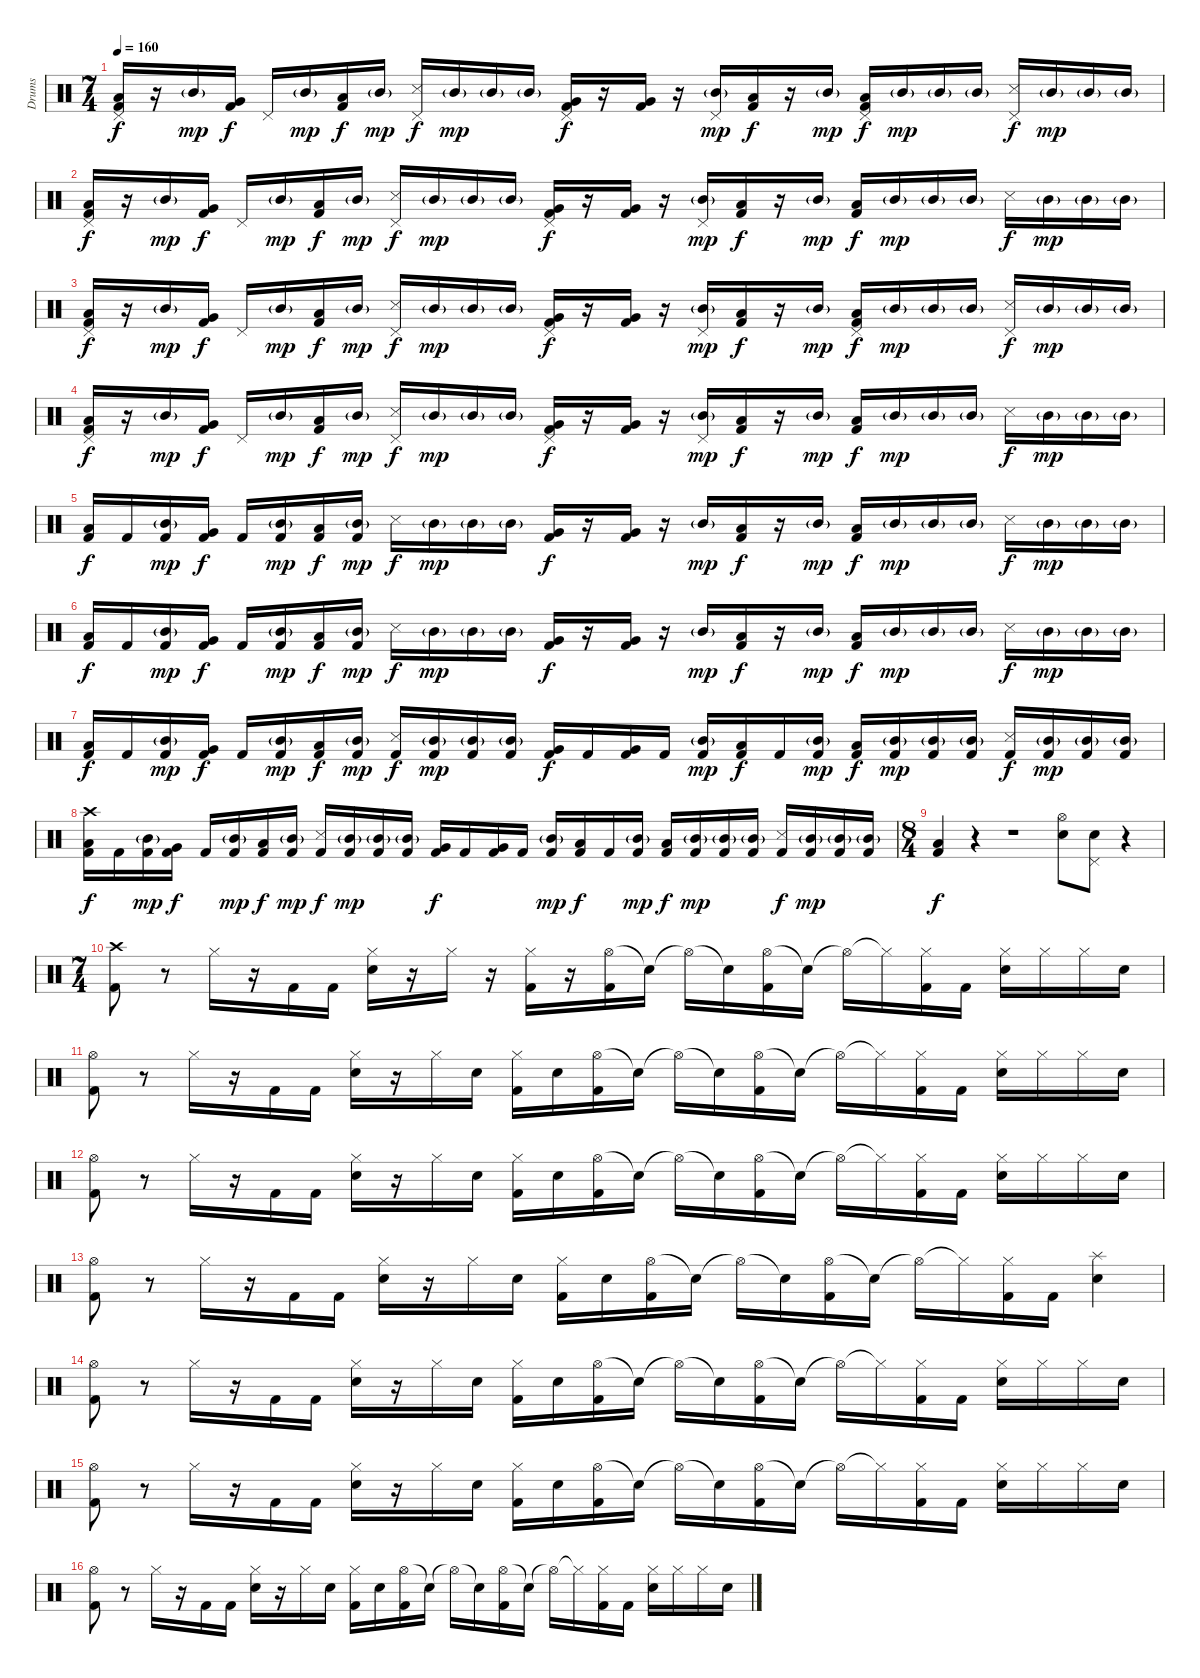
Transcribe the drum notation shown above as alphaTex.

\track ("Drums" "Drums") {instrument percussion}
\staff {score}
\articulation defaults
\ts (7 4)
\tempo 160
\clef neutral
\ks c
("Pedal Hi-Hat (hit)" "Low Floor Tom (hit)" "Kick (hit) 2").16{dy f} r.16 "Mid Tom (hit)"{g}.16{dy mp} ("Very Low Tom (hit)" "Kick (hit) 2").16{dy f} "Pedal Hi-Hat (hit)".16 "Mid Tom (hit)"{g}.16{dy mp} ("Low Floor Tom (hit)" "Kick (hit) 2").16{dy f} "Mid Tom (hit)"{g}.16{dy mp} ("Pedal Hi-Hat (hit)" "Snare (side stick) 3").16{dy f} "Mid Tom (hit)"{g}.16{dy mp} "Mid Tom (hit)"{g}.16 "Mid Tom (hit)"{g}.16 ("Pedal Hi-Hat (hit)" "Very Low Tom (hit)" "Kick (hit) 2").16{dy f} r.16 ("Very Low Tom (hit)" "Kick (hit) 2").16 r.16 ("Pedal Hi-Hat (hit)" "Mid Tom (hit)"{g}).16{dy mp} ("Low Floor Tom (hit)" "Kick (hit) 2").16{dy f} r.16 "Mid Tom (hit)"{g}.16{dy mp} ("Pedal Hi-Hat (hit)" "Low Floor Tom (hit)" "Kick (hit) 2").16{dy f} "Mid Tom (hit)"{g}.16{dy mp} "Mid Tom (hit)"{g}.16 "Mid Tom (hit)"{g}.16 ("Pedal Hi-Hat (hit)" "Snare (side stick) 3").16{dy f} "Mid Tom (hit)"{g}.16{dy mp} "Mid Tom (hit)"{g}.16 "Mid Tom (hit)"{g}.16 |
("Pedal Hi-Hat (hit)" "Low Floor Tom (hit)" "Kick (hit) 2").16{dy f} r.16 "Mid Tom (hit)"{g}.16{dy mp} ("Very Low Tom (hit)" "Kick (hit) 2").16{dy f} "Pedal Hi-Hat (hit)".16 "Mid Tom (hit)"{g}.16{dy mp} ("Low Floor Tom (hit)" "Kick (hit) 2").16{dy f} "Mid Tom (hit)"{g}.16{dy mp} ("Pedal Hi-Hat (hit)" "Snare (side stick) 3").16{dy f} "Mid Tom (hit)"{g}.16{dy mp} "Mid Tom (hit)"{g}.16 "Mid Tom (hit)"{g}.16 ("Pedal Hi-Hat (hit)" "Very Low Tom (hit)" "Kick (hit) 2").16{dy f} r.16 ("Very Low Tom (hit)" "Kick (hit) 2").16 r.16 ("Pedal Hi-Hat (hit)" "Mid Tom (hit)"{g}).16{dy mp} ("Low Floor Tom (hit)" "Kick (hit) 2").16{dy f} r.16 "Mid Tom (hit)"{g}.16{dy mp} ("Low Floor Tom (hit)" "Kick (hit) 2").16{dy f} "Mid Tom (hit)"{g}.16{dy mp} "Mid Tom (hit)"{g}.16 "Mid Tom (hit)"{g}.16 "Snare (side stick) 3".16{dy f} "Mid Tom (hit)"{g}.16{dy mp} "Mid Tom (hit)"{g}.16 "Mid Tom (hit)"{g}.16 |
("Pedal Hi-Hat (hit)" "Low Floor Tom (hit)" "Kick (hit) 2").16{dy f} r.16 "Mid Tom (hit)"{g}.16{dy mp} ("Very Low Tom (hit)" "Kick (hit) 2").16{dy f} "Pedal Hi-Hat (hit)".16 "Mid Tom (hit)"{g}.16{dy mp} ("Low Floor Tom (hit)" "Kick (hit) 2").16{dy f} "Mid Tom (hit)"{g}.16{dy mp} ("Pedal Hi-Hat (hit)" "Snare (side stick) 3").16{dy f} "Mid Tom (hit)"{g}.16{dy mp} "Mid Tom (hit)"{g}.16 "Mid Tom (hit)"{g}.16 ("Pedal Hi-Hat (hit)" "Very Low Tom (hit)" "Kick (hit) 2").16{dy f} r.16 ("Very Low Tom (hit)" "Kick (hit) 2").16 r.16 ("Pedal Hi-Hat (hit)" "Mid Tom (hit)"{g}).16{dy mp} ("Low Floor Tom (hit)" "Kick (hit) 2").16{dy f} r.16 "Mid Tom (hit)"{g}.16{dy mp} ("Pedal Hi-Hat (hit)" "Low Floor Tom (hit)" "Kick (hit) 2").16{dy f} "Mid Tom (hit)"{g}.16{dy mp} "Mid Tom (hit)"{g}.16 "Mid Tom (hit)"{g}.16 ("Pedal Hi-Hat (hit)" "Snare (side stick) 3").16{dy f} "Mid Tom (hit)"{g}.16{dy mp} "Mid Tom (hit)"{g}.16 "Mid Tom (hit)"{g}.16 |
("Pedal Hi-Hat (hit)" "Low Floor Tom (hit)" "Kick (hit) 2").16{dy f} r.16 "Mid Tom (hit)"{g}.16{dy mp} ("Very Low Tom (hit)" "Kick (hit) 2").16{dy f} "Pedal Hi-Hat (hit)".16 "Mid Tom (hit)"{g}.16{dy mp} ("Low Floor Tom (hit)" "Kick (hit) 2").16{dy f} "Mid Tom (hit)"{g}.16{dy mp} ("Pedal Hi-Hat (hit)" "Snare (side stick) 3").16{dy f} "Mid Tom (hit)"{g}.16{dy mp} "Mid Tom (hit)"{g}.16 "Mid Tom (hit)"{g}.16 ("Pedal Hi-Hat (hit)" "Very Low Tom (hit)" "Kick (hit) 2").16{dy f} r.16 ("Very Low Tom (hit)" "Kick (hit) 2").16 r.16 ("Pedal Hi-Hat (hit)" "Mid Tom (hit)"{g}).16{dy mp} ("Low Floor Tom (hit)" "Kick (hit) 2").16{dy f} r.16 "Mid Tom (hit)"{g}.16{dy mp} ("Low Floor Tom (hit)" "Kick (hit) 2").16{dy f} "Mid Tom (hit)"{g}.16{dy mp} "Mid Tom (hit)"{g}.16 "Mid Tom (hit)"{g}.16 "Snare (side stick) 3".16{dy f} "Mid Tom (hit)"{g}.16{dy mp} "Mid Tom (hit)"{g}.16 "Mid Tom (hit)"{g}.16 |
("Low Floor Tom (hit)" "Kick (hit) 2").16{dy f} "Kick (hit) 2".16 ("Mid Tom (hit)"{g} "Kick (hit) 2").16{dy mp} ("Very Low Tom (hit)" "Kick (hit) 2").16{dy f} "Kick (hit) 2".16 ("Mid Tom (hit)"{g} "Kick (hit) 2").16{dy mp} ("Low Floor Tom (hit)" "Kick (hit) 2").16{dy f} ("Mid Tom (hit)"{g} "Kick (hit) 2").16{dy mp} "Snare (side stick) 3".16{dy f} "Mid Tom (hit)"{g}.16{dy mp} "Mid Tom (hit)"{g}.16 "Mid Tom (hit)"{g}.16 ("Very Low Tom (hit)" "Kick (hit) 2").16{dy f} r.16 ("Very Low Tom (hit)" "Kick (hit) 2").16 r.16 "Mid Tom (hit)"{g}.16{dy mp} ("Low Floor Tom (hit)" "Kick (hit) 2").16{dy f} r.16 "Mid Tom (hit)"{g}.16{dy mp} ("Low Floor Tom (hit)" "Kick (hit) 2").16{dy f} "Mid Tom (hit)"{g}.16{dy mp} "Mid Tom (hit)"{g}.16 "Mid Tom (hit)"{g}.16 "Snare (side stick) 3".16{dy f} "Mid Tom (hit)"{g}.16{dy mp} "Mid Tom (hit)"{g}.16 "Mid Tom (hit)"{g}.16 |
("Low Floor Tom (hit)" "Kick (hit) 2").16{dy f} "Kick (hit) 2".16 ("Mid Tom (hit)"{g} "Kick (hit) 2").16{dy mp} ("Very Low Tom (hit)" "Kick (hit) 2").16{dy f} "Kick (hit) 2".16 ("Mid Tom (hit)"{g} "Kick (hit) 2").16{dy mp} ("Low Floor Tom (hit)" "Kick (hit) 2").16{dy f} ("Mid Tom (hit)"{g} "Kick (hit) 2").16{dy mp} "Snare (side stick) 3".16{dy f} "Mid Tom (hit)"{g}.16{dy mp} "Mid Tom (hit)"{g}.16 "Mid Tom (hit)"{g}.16 ("Very Low Tom (hit)" "Kick (hit) 2").16{dy f} r.16 ("Very Low Tom (hit)" "Kick (hit) 2").16 r.16 "Mid Tom (hit)"{g}.16{dy mp} ("Low Floor Tom (hit)" "Kick (hit) 2").16{dy f} r.16 "Mid Tom (hit)"{g}.16{dy mp} ("Low Floor Tom (hit)" "Kick (hit) 2").16{dy f} "Mid Tom (hit)"{g}.16{dy mp} "Mid Tom (hit)"{g}.16 "Mid Tom (hit)"{g}.16 "Snare (side stick) 3".16{dy f} "Mid Tom (hit)"{g}.16{dy mp} "Mid Tom (hit)"{g}.16 "Mid Tom (hit)"{g}.16 |
("Low Floor Tom (hit)" "Kick (hit) 2").16{dy f} "Kick (hit) 2".16 ("Mid Tom (hit)"{g} "Kick (hit) 2").16{dy mp} ("Very Low Tom (hit)" "Kick (hit) 2").16{dy f} "Kick (hit) 2".16 ("Mid Tom (hit)"{g} "Kick (hit) 2").16{dy mp} ("Low Floor Tom (hit)" "Kick (hit) 2").16{dy f} ("Mid Tom (hit)"{g} "Kick (hit) 2").16{dy mp} ("Snare (side stick) 3" "Kick (hit) 2").16{dy f} ("Mid Tom (hit)"{g} "Kick (hit) 2").16{dy mp} ("Mid Tom (hit)"{g} "Kick (hit) 2").16 ("Mid Tom (hit)"{g} "Kick (hit) 2").16 ("Very Low Tom (hit)" "Kick (hit) 2").16{dy f} "Kick (hit) 2".16 ("Very Low Tom (hit)" "Kick (hit) 2").16 "Kick (hit) 2".16 ("Mid Tom (hit)"{g} "Kick (hit) 2").16{dy mp} ("Low Floor Tom (hit)" "Kick (hit) 2").16{dy f} "Kick (hit) 2".16 ("Mid Tom (hit)"{g} "Kick (hit) 2").16{dy mp} ("Low Floor Tom (hit)" "Kick (hit) 2").16{dy f} ("Mid Tom (hit)"{g} "Kick (hit) 2").16{dy mp} ("Mid Tom (hit)"{g} "Kick (hit) 2").16 ("Mid Tom (hit)"{g} "Kick (hit) 2").16 ("Snare (side stick) 3" "Kick (hit) 2").16{dy f} ("Mid Tom (hit)"{g} "Kick (hit) 2").16{dy mp} ("Mid Tom (hit)"{g} "Kick (hit) 2").16 ("Mid Tom (hit)"{g} "Kick (hit) 2").16 |
("Crash high (hit)" "Low Floor Tom (hit)" "Kick (hit) 2").16{dy f} "Kick (hit) 2".16 ("Mid Tom (hit)"{g} "Kick (hit) 2").16{dy mp} ("Very Low Tom (hit)" "Kick (hit) 2").16{dy f} "Kick (hit) 2".16 ("Mid Tom (hit)"{g} "Kick (hit) 2").16{dy mp} ("Low Floor Tom (hit)" "Kick (hit) 2").16{dy f} ("Mid Tom (hit)"{g} "Kick (hit) 2").16{dy mp} ("Snare (side stick) 3" "Kick (hit) 2").16{dy f} ("Mid Tom (hit)"{g} "Kick (hit) 2").16{dy mp} ("Mid Tom (hit)"{g} "Kick (hit) 2").16 ("Mid Tom (hit)"{g} "Kick (hit) 2").16 ("Very Low Tom (hit)" "Kick (hit) 2").16{dy f} "Kick (hit) 2".16 ("Very Low Tom (hit)" "Kick (hit) 2").16 "Kick (hit) 2".16 ("Mid Tom (hit)"{g} "Kick (hit) 2").16{dy mp} ("Low Floor Tom (hit)" "Kick (hit) 2").16{dy f} "Kick (hit) 2".16 ("Mid Tom (hit)"{g} "Kick (hit) 2").16{dy mp} ("Low Floor Tom (hit)" "Kick (hit) 2").16{dy f} ("Mid Tom (hit)"{g} "Kick (hit) 2").16{dy mp} ("Mid Tom (hit)"{g} "Kick (hit) 2").16 ("Mid Tom (hit)"{g} "Kick (hit) 2").16 ("Snare (side stick) 3" "Kick (hit) 2").16{dy f} ("Mid Tom (hit)"{g} "Kick (hit) 2").16{dy mp} ("Mid Tom (hit)"{g} "Kick (hit) 2").16 ("Mid Tom (hit)"{g} "Kick (hit) 2").16 |
\ts (8 4)
("Low Floor Tom (hit)" "Kick (hit) 2").4{dy f} r.4 r.1 ("Hi-Hat (open)" "Snare (hit) 2").8 ("Pedal Hi-Hat (hit)" "Snare (hit) 2").8 r.4 |
\ts (7 4)
("Crash high (hit)" "Kick (hit) 2").8 r.8 "Hi-Hat (closed)".16 r.16 "Kick (hit) 2".16 "Kick (hit) 2".16 ("Hi-Hat (closed)" "Snare (hit) 2").16 r.16 "Hi-Hat (closed)".16 r.16 ("Hi-Hat (closed)" "Kick (hit) 2").16 r.16 ("Hi-Hat (open)" "Kick (hit) 2").16 "Snare (hit)"{t}.16 "Hi-Hat (open)"{t}.16 "Snare (hit)"{t}.16 ("Hi-Hat (open)" "Kick (hit) 2").16 "Snare (hit)"{t}.16 "Hi-Hat (open)"{t}.16 "Hi-Hat (closed)"{t}.16 ("Hi-Hat (closed)" "Kick (hit) 2").16 "Kick (hit) 2".16 ("Hi-Hat (closed)" "Snare (hit) 2").16 "Hi-Hat (closed)".16 "Hi-Hat (closed)".16 "Snare (hit) 2".16 |
("Hi-Hat (open)" "Kick (hit) 2").8 r.8 "Hi-Hat (closed)".16 r.16 "Kick (hit) 2".16 "Kick (hit) 2".16 ("Hi-Hat (closed)" "Snare (hit) 2").16 r.16 "Hi-Hat (closed)".16 "Snare (hit) 2".16 ("Hi-Hat (closed)" "Kick (hit) 2").16 "Snare (hit) 2".16 ("Hi-Hat (open)" "Kick (hit) 2").16 "Snare (hit)"{t}.16 "Hi-Hat (open)"{t}.16 "Snare (hit)"{t}.16 ("Hi-Hat (open)" "Kick (hit) 2").16 "Snare (hit)"{t}.16 "Hi-Hat (open)"{t}.16 "Hi-Hat (closed)"{t}.16 ("Hi-Hat (closed)" "Kick (hit) 2").16 "Kick (hit) 2".16 ("Hi-Hat (closed)" "Snare (hit) 2").16 "Hi-Hat (closed)".16 "Hi-Hat (closed)".16 "Snare (hit) 2".16 |
("Hi-Hat (open)" "Kick (hit) 2").8 r.8 "Hi-Hat (closed)".16 r.16 "Kick (hit) 2".16 "Kick (hit) 2".16 ("Hi-Hat (closed)" "Snare (hit) 2").16 r.16 "Hi-Hat (closed)".16 "Snare (hit) 2".16 ("Hi-Hat (closed)" "Kick (hit) 2").16 "Snare (hit) 2".16 ("Hi-Hat (open)" "Kick (hit) 2").16 "Snare (hit)"{t}.16 "Hi-Hat (open)"{t}.16 "Snare (hit)"{t}.16 ("Hi-Hat (open)" "Kick (hit) 2").16 "Snare (hit)"{t}.16 "Hi-Hat (open)"{t}.16 "Hi-Hat (closed)"{t}.16 ("Hi-Hat (closed)" "Kick (hit) 2").16 "Kick (hit) 2".16 ("Hi-Hat (closed)" "Snare (hit) 2").16 "Hi-Hat (closed)".16 "Hi-Hat (closed)".16 "Snare (hit) 2".16 |
("Hi-Hat (open)" "Kick (hit) 2").8 r.8 "Hi-Hat (closed)".16 r.16 "Kick (hit) 2".16 "Kick (hit) 2".16 ("Hi-Hat (closed)" "Snare (hit) 2").16 r.16 "Hi-Hat (closed)".16 "Snare (hit) 2".16 ("Hi-Hat (closed)" "Kick (hit) 2").16 "Snare (hit) 2".16 ("Hi-Hat (open)" "Kick (hit) 2").16 "Snare (hit)"{t}.16 "Hi-Hat (open)"{t}.16 "Snare (hit)"{t}.16 ("Hi-Hat (open)" "Kick (hit) 2").16 "Snare (hit)"{t}.16 "Hi-Hat (open)"{t}.16 "Hi-Hat (closed)"{t}.16 ("Hi-Hat (closed)" "Kick (hit) 2").16 "Kick (hit) 2".16 ("Splash (hit)" "Snare (hit) 2").4 |
("Hi-Hat (open)" "Kick (hit) 2").8 r.8 "Hi-Hat (closed)".16 r.16 "Kick (hit) 2".16 "Kick (hit) 2".16 ("Hi-Hat (closed)" "Snare (hit) 2").16 r.16 "Hi-Hat (closed)".16 "Snare (hit) 2".16 ("Hi-Hat (closed)" "Kick (hit) 2").16 "Snare (hit) 2".16 ("Hi-Hat (open)" "Kick (hit) 2").16 "Snare (hit)"{t}.16 "Hi-Hat (open)"{t}.16 "Snare (hit)"{t}.16 ("Hi-Hat (open)" "Kick (hit) 2").16 "Snare (hit)"{t}.16 "Hi-Hat (open)"{t}.16 "Hi-Hat (closed)"{t}.16 ("Hi-Hat (closed)" "Kick (hit) 2").16 "Kick (hit) 2".16 ("Hi-Hat (closed)" "Snare (hit) 2").16 "Hi-Hat (closed)".16 "Hi-Hat (closed)".16 "Snare (hit) 2".16 |
("Hi-Hat (open)" "Kick (hit) 2").8 r.8 "Hi-Hat (closed)".16 r.16 "Kick (hit) 2".16 "Kick (hit) 2".16 ("Hi-Hat (closed)" "Snare (hit) 2").16 r.16 "Hi-Hat (closed)".16 "Snare (hit) 2".16 ("Hi-Hat (closed)" "Kick (hit) 2").16 "Snare (hit) 2".16 ("Hi-Hat (open)" "Kick (hit) 2").16 "Snare (hit)"{t}.16 "Hi-Hat (open)"{t}.16 "Snare (hit)"{t}.16 ("Hi-Hat (open)" "Kick (hit) 2").16 "Snare (hit)"{t}.16 "Hi-Hat (open)"{t}.16 "Hi-Hat (closed)"{t}.16 ("Hi-Hat (closed)" "Kick (hit) 2").16 "Kick (hit) 2".16 ("Hi-Hat (closed)" "Snare (hit) 2").16 "Hi-Hat (closed)".16 "Hi-Hat (closed)".16 "Snare (hit) 2".16 |
("Hi-Hat (open)" "Kick (hit) 2").8 r.8 "Hi-Hat (closed)".16 r.16 "Kick (hit) 2".16 "Kick (hit) 2".16 ("Hi-Hat (closed)" "Snare (hit) 2").16 r.16 "Hi-Hat (closed)".16 "Snare (hit) 2".16 ("Hi-Hat (closed)" "Kick (hit) 2").16 "Snare (hit) 2".16 ("Hi-Hat (open)" "Kick (hit) 2").16 "Snare (hit)"{t}.16 "Hi-Hat (open)"{t}.16 "Snare (hit)"{t}.16 ("Hi-Hat (open)" "Kick (hit) 2").16 "Snare (hit)"{t}.16 "Hi-Hat (open)"{t}.16 "Hi-Hat (closed)"{t}.16 ("Hi-Hat (closed)" "Kick (hit) 2").16 "Kick (hit) 2".16 ("Hi-Hat (closed)" "Snare (hit) 2").16 "Hi-Hat (closed)".16 "Hi-Hat (closed)".16 "Snare (hit) 2".16
